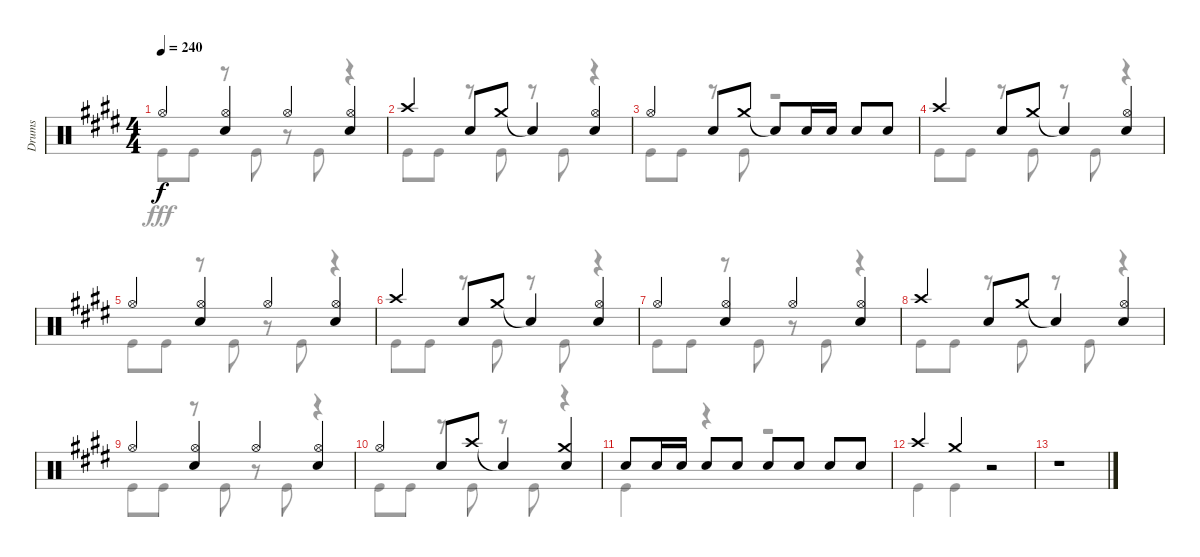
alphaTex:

\track ("Drums" "Drums") {instrument percussion}
\staff {score}
\articulation defaults
\voice
\ts (4 4)
\tempo 240
\clef neutral
\ks e "Hi-Hat (open)".4{dy f}
("Hi-Hat (open)" "Snare (hit) 2").4 "Hi-Hat (open)".4 ("Hi-Hat (open)" "Snare (hit) 2").4 |
"Crash high (hit)".4 "Snare (hit) 2".8 "Crash medium (hit)".8 "Snare (hit)"{t}.4 ("Hi-Hat (open)" "Snare (hit) 2").4 |
"Hi-Hat (open)".4 "Snare (hit) 2".8 "Crash medium (hit)".8 "Snare (hit)"{t}.8 "Snare (hit) 2".16 "Snare (hit) 2".16 "Snare (hit) 2".8 "Snare (hit) 2".8 |
"Crash high (hit)".4 "Snare (hit) 2".8 "Crash medium (hit)".8 "Snare (hit)"{t}.4 ("Hi-Hat (open)" "Snare (hit) 2").4 |
"Hi-Hat (open)".4 ("Hi-Hat (open)" "Snare (hit) 2").4 "Hi-Hat (open)".4 ("Hi-Hat (open)" "Snare (hit) 2").4 |
"Crash high (hit)".4 "Snare (hit) 2".8 "Crash medium (hit)".8 "Snare (hit)"{t}.4 ("Hi-Hat (open)" "Snare (hit) 2").4 |
"Hi-Hat (open)".4 ("Hi-Hat (open)" "Snare (hit) 2").4 "Hi-Hat (open)".4 ("Hi-Hat (open)" "Snare (hit) 2").4 |
"Crash high (hit)".4 "Snare (hit) 2".8 "Crash medium (hit)".8 "Snare (hit)"{t}.4 ("Hi-Hat (open)" "Snare (hit) 2").4 |
"Hi-Hat (open)".4 ("Hi-Hat (open)" "Snare (hit) 2").4 "Hi-Hat (open)".4 ("Hi-Hat (open)" "Snare (hit) 2").4 |
"Hi-Hat (open)".4 "Snare (hit) 2".8 "Crash high (hit)".8 "Snare (hit)"{t}.4 ("Crash medium (hit)" "Snare (hit) 2").4 |
"Snare (hit) 2".8 "Snare (hit) 2".16 "Snare (hit) 2".16 "Snare (hit) 2".8 "Snare (hit) 2".8 "Snare (hit) 2".8 "Snare (hit) 2".8 "Snare (hit) 2".8 "Snare (hit) 2".8 |
"Crash high (hit)".4 "Crash medium (hit)".4 r.2 |
r.1
\voice
\clef neutral
\ottava regular
\simile none
\ks e "Kick (hit)".8{dy fff} "Kick (hit)".8
r.8 "Kick (hit)".8 r.8 "Kick (hit)".8 r.4 |
"Kick (hit)".8 "Kick (hit)".8 r.8 "Kick (hit)".8 r.8 "Kick (hit)".8 r.4 |
"Kick (hit)".8 "Kick (hit)".8 r.8 "Kick (hit)".8 r.2 |
"Kick (hit)".8 "Kick (hit)".8 r.8 "Kick (hit)".8 r.8 "Kick (hit)".8 r.4 |
"Kick (hit)".8 "Kick (hit)".8 r.8 "Kick (hit)".8 r.8 "Kick (hit)".8 r.4 |
"Kick (hit)".8 "Kick (hit)".8 r.8 "Kick (hit)".8 r.8 "Kick (hit)".8 r.4 |
"Kick (hit)".8 "Kick (hit)".8 r.8 "Kick (hit)".8 r.8 "Kick (hit)".8 r.4 |
"Kick (hit)".8 "Kick (hit)".8 r.8 "Kick (hit)".8 r.8 "Kick (hit)".8 r.4 |
"Kick (hit)".8 "Kick (hit)".8 r.8 "Kick (hit)".8 r.8 "Kick (hit)".8 r.4 |
"Kick (hit)".8 "Kick (hit)".8 r.8 "Kick (hit)".8 r.8 "Kick (hit)".8 r.4 |
"Kick (hit)".4 r.4 r.2 |
"Kick (hit)".4 "Kick (hit)".4 r.2 |
r.1
